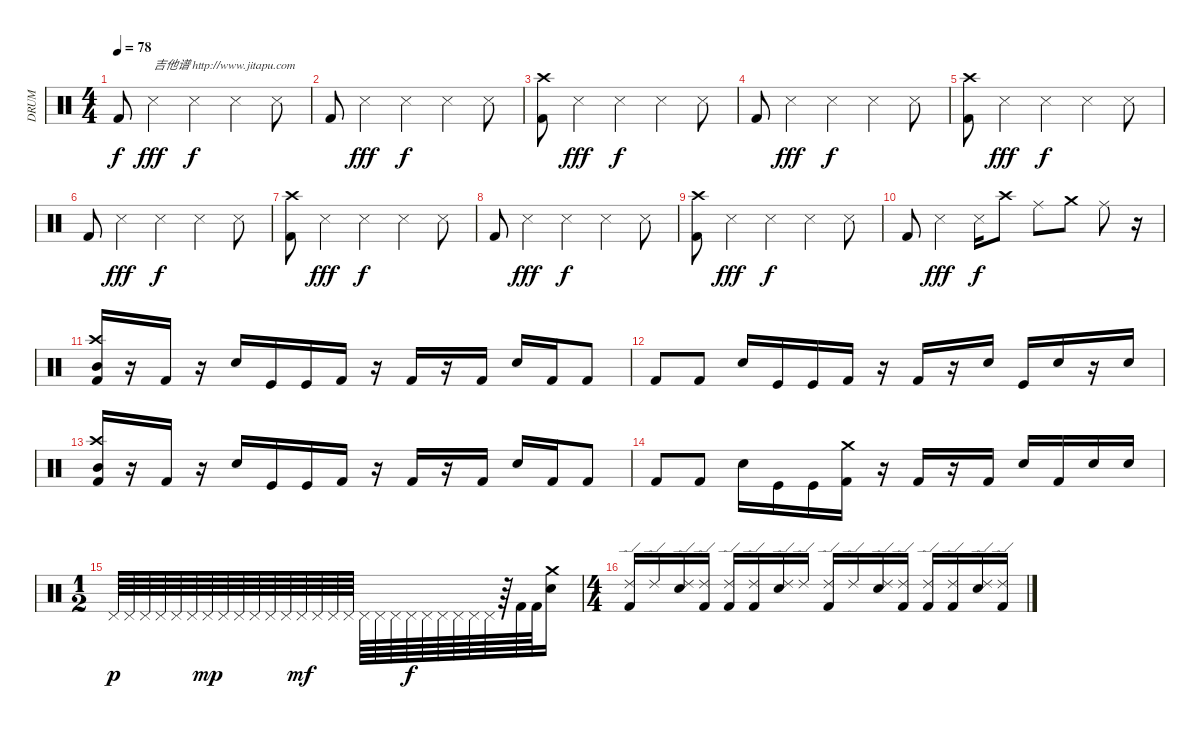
\track ("DRUM" "DRUM") {instrument percussion}
\staff {score}
\articulation defaults
\ts (4 4)
\tempo 78
\clef neutral
\ks c "Kick (hit) 2".8{dy f} "Metronome (hit)".4{txt "吉他谱 http://www.jitapu.com" dy fff} "Metronome (hit)".4{dy f} "Metronome (hit)".4 "Metronome (hit)".8
|
"Kick (hit) 2".8 "Metronome (hit)".4{dy fff} "Metronome (hit)".4{dy f} "Metronome (hit)".4 "Metronome (hit)".8 |
("Kick (hit) 2" "Crash high (hit)").8 "Metronome (hit)".4{dy fff} "Metronome (hit)".4{dy f} "Metronome (hit)".4 "Metronome (hit)".8 |
"Kick (hit) 2".8 "Metronome (hit)".4{dy fff} "Metronome (hit)".4{dy f} "Metronome (hit)".4 "Metronome (hit)".8 |
("Kick (hit) 2" "Crash high (hit)").8 "Metronome (hit)".4{dy fff} "Metronome (hit)".4{dy f} "Metronome (hit)".4 "Metronome (hit)".8 |
"Kick (hit) 2".8 "Metronome (hit)".4{dy fff} "Metronome (hit)".4{dy f} "Metronome (hit)".4 "Metronome (hit)".8 |
("Kick (hit) 2" "Crash high (hit)").8 "Metronome (hit)".4{dy fff} "Metronome (hit)".4{dy f} "Metronome (hit)".4 "Metronome (hit)".8 |
"Kick (hit) 2".8 "Metronome (hit)".4{dy fff} "Metronome (hit)".4{dy f} "Metronome (hit)".4 "Metronome (hit)".8 |
("Kick (hit) 2" "Crash high (hit)").8 "Metronome (hit)".4{dy fff} "Metronome (hit)".4{dy f} "Metronome (hit)".4 "Metronome (hit)".8 |
"Kick (hit) 2".8 "Metronome (hit)".4{dy fff} "Metronome (hit)".16{dy f} "Crash high (hit)".8{balance 0} "Ride (middle)".8{balance 8} "Crash medium (hit)".8{balance 2} "Ride (middle)".8 r.16 |
("Kick (hit) 2" "Crash high (hit)" "Mid Tom (hit)").16 r.16 "Kick (hit) 2".16 r.16 "Snare (hit) 2".16 "Kick (hit)".16 "Kick (hit)".16 "Kick (hit) 2".16 r.16 "Kick (hit) 2".16 r.16 "Kick (hit) 2".16 "Snare (hit) 2".16 "Kick (hit) 2".16 "Kick (hit) 2".8 |
"Kick (hit) 2".8 "Kick (hit) 2".8 "Snare (hit) 2".16 "Kick (hit)".16 "Kick (hit)".16 "Kick (hit) 2".16 r.16 "Kick (hit) 2".16 r.16 "Snare (hit) 2".16 "Kick (hit)".16 "Snare (hit) 2".16 r.16 "Snare (hit) 2".16 |
("Kick (hit) 2" "Crash high (hit)" "Mid Tom (hit)").16 r.16 "Kick (hit) 2".16 r.16 "Snare (hit) 2".16 "Kick (hit)".16 "Kick (hit)".16 "Kick (hit) 2".16 r.16 "Kick (hit) 2".16 r.16 "Kick (hit) 2".16 "Snare (hit) 2".16 "Kick (hit) 2".16 "Kick (hit) 2".8 |
"Kick (hit) 2".8 "Kick (hit) 2".8 "Snare (hit) 2".16 "Kick (hit)".16 "Kick (hit)".16 ("Kick (hit) 2" "Crash medium (hit)").16 r.16 "Kick (hit) 2".16 r.16 "Kick (hit) 2".16 "Snare (hit) 2".16 "Kick (hit) 2".16 "Snare (hit) 2".16 "Snare (hit) 2".16 |
\ts (1 2)
"Pedal Hi-Hat (hit)".64{dy p balance 8} "Pedal Hi-Hat (hit)".64 "Pedal Hi-Hat (hit)".64 "Pedal Hi-Hat (hit)".64 "Pedal Hi-Hat (hit)".64 "Pedal Hi-Hat (hit)".64 "Pedal Hi-Hat (hit)".64{dy mp} "Pedal Hi-Hat (hit)".64 "Pedal Hi-Hat (hit)".64 "Pedal Hi-Hat (hit)".64 "Pedal Hi-Hat (hit)".64 "Pedal Hi-Hat (hit)".64 "Pedal Hi-Hat (hit)".64{dy mf} "Pedal Hi-Hat (hit)".64 "Pedal Hi-Hat (hit)".64 "Pedal Hi-Hat (hit)".64 "Pedal Hi-Hat (hit)".64 "Pedal Hi-Hat (hit)".64 "Pedal Hi-Hat (hit)".64 "Pedal Hi-Hat (hit)".64{dy f} "Pedal Hi-Hat (hit)".64 "Pedal Hi-Hat (hit)".64 "Pedal Hi-Hat (hit)".64 "Pedal Hi-Hat (hit)".64 "Pedal Hi-Hat (hit)".64 r.64 "Kick (hit) 2".64 "Kick (hit) 2".64 ("Crash medium (hit)" "Snare (hit) 2").16 |
\ts (4 4)
("Kick (hit) 2" "Ride (edge) 2").16 "Ride (edge) 2".16 ("Snare (hit) 2" "Ride (edge) 2").16 ("Kick (hit) 2" "Ride (edge) 2").16 ("Kick (hit) 2" "Ride (edge) 2").16 ("Kick (hit) 2" "Ride (edge) 2").16 ("Snare (hit) 2" "Ride (edge) 2").16 "Ride (edge) 2".16 ("Kick (hit) 2" "Ride (edge) 2").16 "Ride (edge) 2".16 ("Snare (hit) 2" "Ride (edge) 2").16 ("Kick (hit) 2" "Ride (edge) 2").16 ("Kick (hit) 2" "Ride (edge) 2").16 ("Kick (hit) 2" "Ride (edge) 2").16 ("Snare (hit) 2" "Ride (edge) 2").16 ("Kick (hit) 2" "Ride (edge) 2").16
